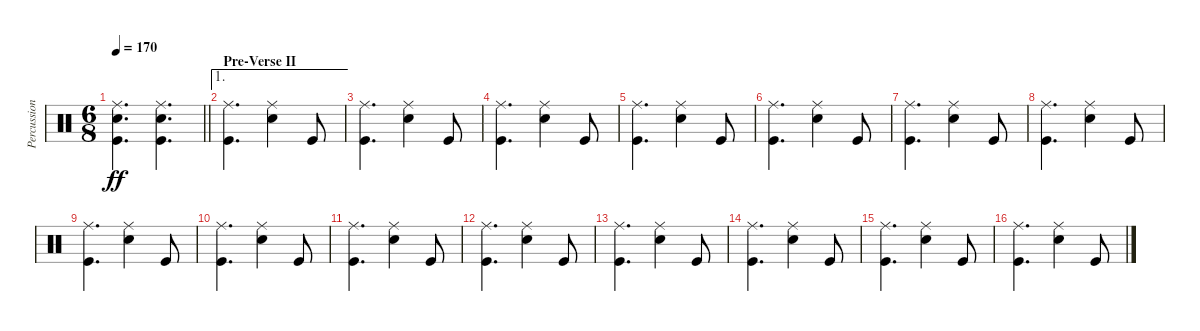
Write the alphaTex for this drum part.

\track ("Percussion" "Percussion") {instrument percussion}
\staff {score}
\articulation defaults
\ts (6 8)
\tempo 170
\clef neutral
\barLineRight lightlight
\ks c
("Ride (middle)" "Snare (hit) 2" "Kick (hit)").4{d dy ff} ("Ride (middle)" "Snare (hit) 2" "Kick (hit)").4{d} |
\ae 1
\section ("" "Pre-Verse II")
("Ride (middle)" "Kick (hit)").4{d} ("Ride (middle)" "Snare (hit) 2").4 "Kick (hit)".8 |
("Ride (middle)" "Kick (hit)").4{d} ("Ride (middle)" "Snare (hit) 2").4 "Kick (hit)".8 |
("Ride (middle)" "Kick (hit)").4{d} ("Ride (middle)" "Snare (hit) 2").4 "Kick (hit)".8 |
("Ride (middle)" "Kick (hit)").4{d} ("Ride (middle)" "Snare (hit) 2").4 "Kick (hit)".8 |
("Ride (middle)" "Kick (hit)").4{d} ("Ride (middle)" "Snare (hit) 2").4 "Kick (hit)".8 |
("Ride (middle)" "Kick (hit)").4{d} ("Ride (middle)" "Snare (hit) 2").4 "Kick (hit)".8 |
("Ride (middle)" "Kick (hit)").4{d} ("Ride (middle)" "Snare (hit) 2").4 "Kick (hit)".8 |
("Ride (middle)" "Kick (hit)").4{d} ("Ride (middle)" "Snare (hit) 2").4 "Kick (hit)".8 |
("Ride (middle)" "Kick (hit)").4{d} ("Ride (middle)" "Snare (hit) 2").4 "Kick (hit)".8 |
("Ride (middle)" "Kick (hit)").4{d} ("Ride (middle)" "Snare (hit) 2").4 "Kick (hit)".8 |
("Ride (middle)" "Kick (hit)").4{d} ("Ride (middle)" "Snare (hit) 2").4 "Kick (hit)".8 |
("Ride (middle)" "Kick (hit)").4{d} ("Ride (middle)" "Snare (hit) 2").4 "Kick (hit)".8 |
("Ride (middle)" "Kick (hit)").4{d} ("Ride (middle)" "Snare (hit) 2").4 "Kick (hit)".8 |
("Ride (middle)" "Kick (hit)").4{d} ("Ride (middle)" "Snare (hit) 2").4 "Kick (hit)".8 |
("Ride (middle)" "Kick (hit)").4{d} ("Ride (middle)" "Snare (hit) 2").4 "Kick (hit)".8
